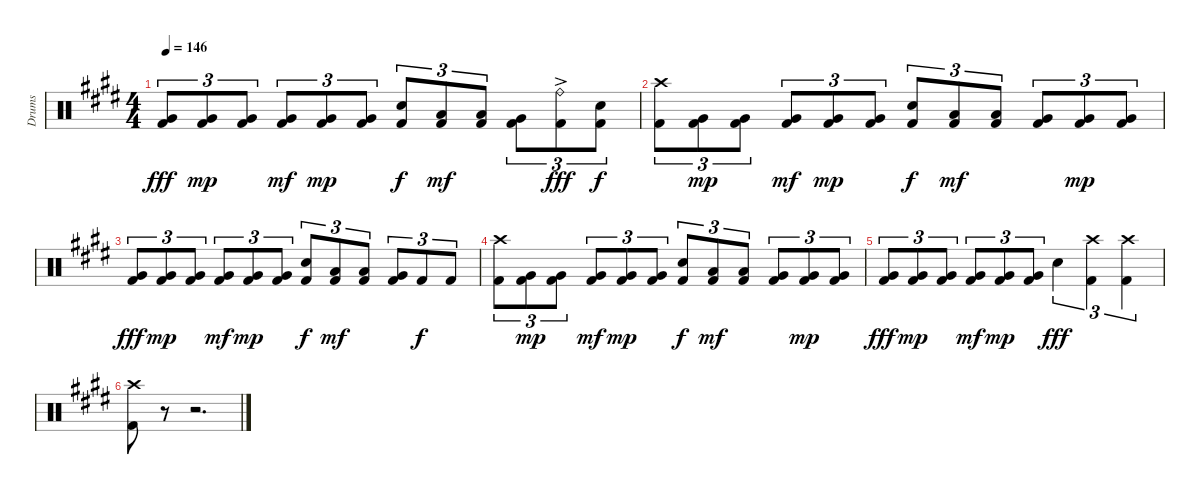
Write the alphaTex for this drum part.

\track ("Drums" "Drums") {instrument percussion}
\staff {score}
\articulation defaults
\ts (4 4)
\tempo 146
\clef neutral
\ks c#minor
("Very Low Tom (hit)" "Kick (hit) 2").8{tu (3 2) dy fff} ("Very Low Tom (hit)" "Kick (hit) 2").8{tu (3 2) dy mp} ("Very Low Tom (hit)" "Kick (hit) 2").8{tu (3 2)} ("Very Low Tom (hit)" "Kick (hit) 2").8{tu (3 2) dy mf} ("Very Low Tom (hit)" "Kick (hit) 2").8{tu (3 2) dy mp} ("Very Low Tom (hit)" "Kick (hit) 2").8{tu (3 2)} ("Snare (hit) 2" "Kick (hit) 2").8{tu (3 2) dy f} ("Low Tom (hit)" "Kick (hit) 2").8{tu (3 2) dy mf} ("Low Tom (hit)" "Kick (hit) 2").8{tu (3 2)} ("Very Low Tom (hit)" "Kick (hit) 2").8{tu (3 2)} ("Ride (bell)"{ac} "Kick (hit) 2").8{tu (3 2) dy fff} ("Snare (hit) 2" "Kick (hit) 2").8{tu (3 2) dy f} |
("Crash high (hit)" "Kick (hit) 2").8{tu (3 2)} ("Very Low Tom (hit)" "Kick (hit) 2").8{tu (3 2) dy mp} ("Very Low Tom (hit)" "Kick (hit) 2").8{tu (3 2)} ("Very Low Tom (hit)" "Kick (hit) 2").8{tu (3 2) dy mf} ("Very Low Tom (hit)" "Kick (hit) 2").8{tu (3 2) dy mp} ("Very Low Tom (hit)" "Kick (hit) 2").8{tu (3 2)} ("Snare (hit) 2" "Kick (hit) 2").8{tu (3 2) dy f} ("Low Tom (hit)" "Kick (hit) 2").8{tu (3 2) dy mf} ("Low Tom (hit)" "Kick (hit) 2").8{tu (3 2)} ("Very Low Tom (hit)" "Kick (hit) 2").8{tu (3 2)} ("Very Low Tom (hit)" "Kick (hit) 2").8{tu (3 2) dy mp} ("Very Low Tom (hit)" "Kick (hit) 2").8{tu (3 2)} |
("Very Low Tom (hit)" "Kick (hit) 2").8{tu (3 2) dy fff} ("Very Low Tom (hit)" "Kick (hit) 2").8{tu (3 2) dy mp} ("Very Low Tom (hit)" "Kick (hit) 2").8{tu (3 2)} ("Very Low Tom (hit)" "Kick (hit) 2").8{tu (3 2) dy mf} ("Very Low Tom (hit)" "Kick (hit) 2").8{tu (3 2) dy mp} ("Very Low Tom (hit)" "Kick (hit) 2").8{tu (3 2)} ("Snare (hit) 2" "Kick (hit) 2").8{tu (3 2) dy f} ("Low Tom (hit)" "Kick (hit) 2").8{tu (3 2) dy mf} ("Low Tom (hit)" "Kick (hit) 2").8{tu (3 2)} ("Very Low Tom (hit)" "Kick (hit) 2").8{tu (3 2)} "Kick (hit) 2".8{tu (3 2) dy f} "Kick (hit) 2".8{tu (3 2)} |
("Crash high (hit)" "Kick (hit) 2").8{tu (3 2)} ("Very Low Tom (hit)" "Kick (hit) 2").8{tu (3 2) dy mp} ("Very Low Tom (hit)" "Kick (hit) 2").8{tu (3 2)} ("Very Low Tom (hit)" "Kick (hit) 2").8{tu (3 2) dy mf} ("Very Low Tom (hit)" "Kick (hit) 2").8{tu (3 2) dy mp} ("Very Low Tom (hit)" "Kick (hit) 2").8{tu (3 2)} ("Snare (hit) 2" "Kick (hit) 2").8{tu (3 2) dy f} ("Low Tom (hit)" "Kick (hit) 2").8{tu (3 2) dy mf} ("Low Tom (hit)" "Kick (hit) 2").8{tu (3 2)} ("Very Low Tom (hit)" "Kick (hit) 2").8{tu (3 2)} ("Very Low Tom (hit)" "Kick (hit) 2").8{tu (3 2) dy mp} ("Very Low Tom (hit)" "Kick (hit) 2").8{tu (3 2)} |
("Very Low Tom (hit)" "Kick (hit) 2").8{tu (3 2) dy fff} ("Very Low Tom (hit)" "Kick (hit) 2").8{tu (3 2) dy mp} ("Very Low Tom (hit)" "Kick (hit) 2").8{tu (3 2)} ("Very Low Tom (hit)" "Kick (hit) 2").8{tu (3 2) dy mf} ("Very Low Tom (hit)" "Kick (hit) 2").8{tu (3 2) dy mp} ("Very Low Tom (hit)" "Kick (hit) 2").8{tu (3 2)} "Snare (hit) 2".4{tu (3 2) dy fff} ("Crash high (hit)" "Kick (hit) 2").4{tu (3 2)} ("Crash high (hit)" "Kick (hit) 2").4{tu (3 2)} |
("Crash high (hit)" "Kick (hit) 2").8 r.8{volume 0} r.2{d}
